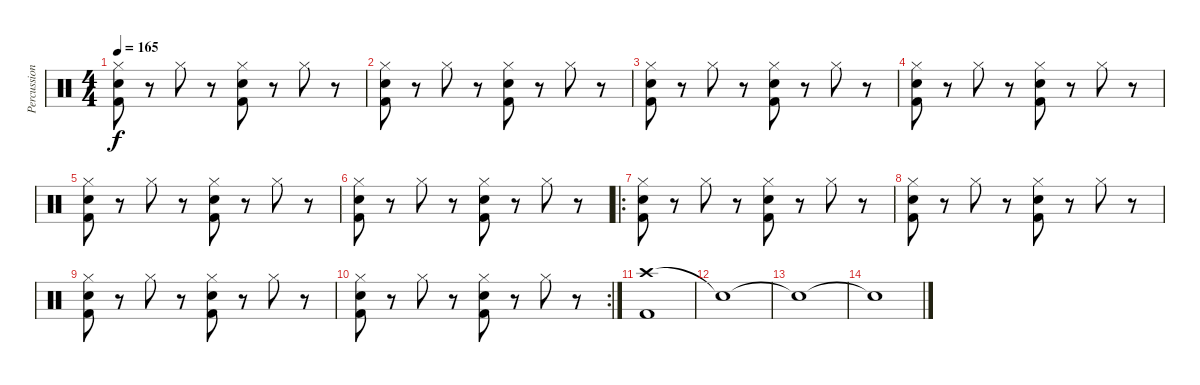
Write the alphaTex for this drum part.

\track ("Percussion" "Percussion") {instrument percussion}
\staff {score}
\articulation defaults
\ts (4 4)
\tempo 165
\clef neutral
\ks c
("Snare (hit) 2" "Kick (hit) 2" "Hi-Hat (closed)").8{dy f} r.8 "Hi-Hat (closed)".8 r.8 ("Snare (hit) 2" "Kick (hit) 2" "Hi-Hat (closed)").8 r.8 "Hi-Hat (closed)".8 r.8 |
("Snare (hit) 2" "Kick (hit) 2" "Hi-Hat (closed)").8 r.8 "Hi-Hat (closed)".8 r.8 ("Snare (hit) 2" "Kick (hit) 2" "Hi-Hat (closed)").8 r.8 "Hi-Hat (closed)".8 r.8 |
("Snare (hit) 2" "Kick (hit) 2" "Hi-Hat (closed)").8 r.8 "Hi-Hat (closed)".8 r.8 ("Snare (hit) 2" "Kick (hit) 2" "Hi-Hat (closed)").8 r.8 "Hi-Hat (closed)".8 r.8 |
("Snare (hit) 2" "Kick (hit) 2" "Hi-Hat (closed)").8 r.8 "Hi-Hat (closed)".8 r.8 ("Snare (hit) 2" "Kick (hit) 2" "Hi-Hat (closed)").8 r.8 "Hi-Hat (closed)".8 r.8 |
("Snare (hit) 2" "Kick (hit) 2" "Hi-Hat (closed)").8 r.8 "Hi-Hat (closed)".8 r.8 ("Snare (hit) 2" "Kick (hit) 2" "Hi-Hat (closed)").8 r.8 "Hi-Hat (closed)".8 r.8 |
("Snare (hit) 2" "Kick (hit) 2" "Hi-Hat (closed)").8 r.8 "Hi-Hat (closed)".8 r.8 ("Snare (hit) 2" "Kick (hit) 2" "Hi-Hat (closed)").8 r.8 "Hi-Hat (closed)".8 r.8 |
\ro
("Snare (hit) 2" "Kick (hit) 2" "Hi-Hat (closed)").8 r.8 "Hi-Hat (closed)".8 r.8 ("Snare (hit) 2" "Kick (hit) 2" "Hi-Hat (closed)").8 r.8 "Hi-Hat (closed)".8 r.8 |
("Snare (hit) 2" "Kick (hit) 2" "Hi-Hat (closed)").8 r.8 "Hi-Hat (closed)".8 r.8 ("Snare (hit) 2" "Kick (hit) 2" "Hi-Hat (closed)").8 r.8 "Hi-Hat (closed)".8 r.8 |
("Snare (hit) 2" "Kick (hit) 2" "Hi-Hat (closed)").8 r.8 "Hi-Hat (closed)".8 r.8 ("Snare (hit) 2" "Kick (hit) 2" "Hi-Hat (closed)").8 r.8 "Hi-Hat (closed)".8 r.8 |
\rc 2
("Snare (hit) 2" "Kick (hit) 2" "Hi-Hat (closed)").8 r.8 "Hi-Hat (closed)".8 r.8 ("Snare (hit) 2" "Kick (hit) 2" "Hi-Hat (closed)").8 r.8 "Hi-Hat (closed)".8 r.8 |
("Crash high (hit)" "Kick (hit) 2").1 |
"Snare (hit)"{t}.1 |
"Snare (hit)"{t}.1 |
"Snare (hit)"{t}.1
